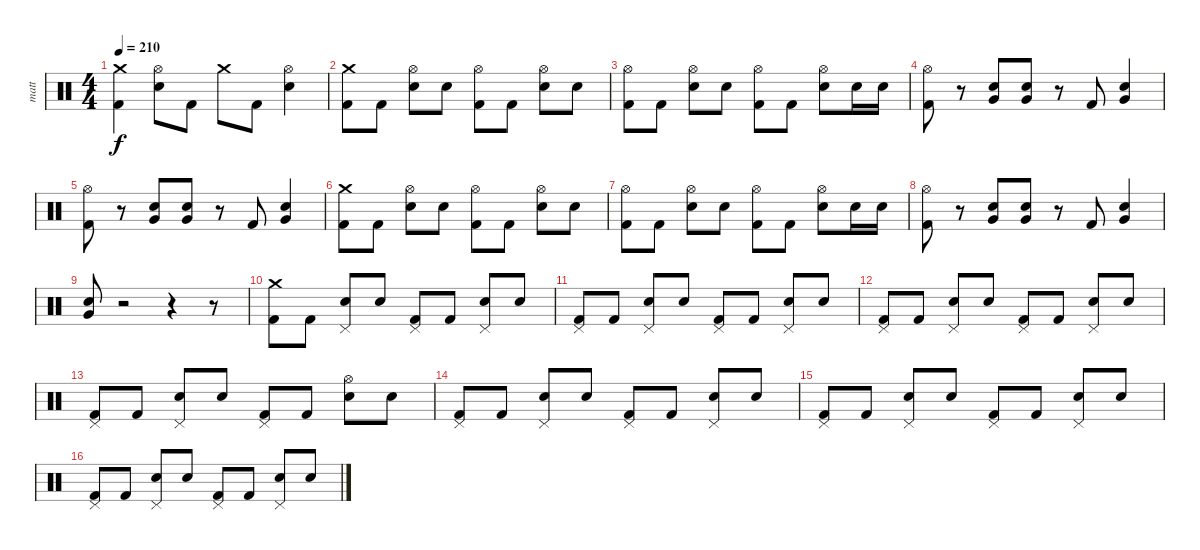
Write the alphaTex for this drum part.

\track ("matt" "matt") {instrument percussion}
\staff {score}
\articulation defaults
\ts (4 4)
\tempo 210
\clef neutral
\ks c
("Crash medium (hit)" "Kick (hit) 2").4{dy f} ("Hi-Hat (open)" "Electric Snare (hit)").8 "Kick (hit) 2".8 "Crash medium (hit)".8 "Kick (hit) 2".8 ("Hi-Hat (open)" "Electric Snare (hit)").4 |
("Crash medium (hit)" "Kick (hit) 2").8 "Kick (hit) 2".8 ("Hi-Hat (open)" "Electric Snare (hit)").8 "Electric Snare (hit)".8 ("Hi-Hat (open)" "Kick (hit) 2").8 "Kick (hit) 2".8 ("Hi-Hat (open)" "Electric Snare (hit)").8 "Electric Snare (hit)".8 |
("Hi-Hat (open)" "Kick (hit) 2").8 "Kick (hit) 2".8 ("Hi-Hat (open)" "Electric Snare (hit)").8 "Electric Snare (hit)".8 ("Hi-Hat (open)" "Kick (hit) 2").8 "Kick (hit) 2".8 ("Hi-Hat (open)" "Electric Snare (hit)").8 "Electric Snare (hit)".16 "Electric Snare (hit)".16 |
("Hi-Hat (open)" "Kick (hit) 2").8 r.8 ("Very Low Tom (hit)" "Electric Snare (hit)").8 ("Very Low Tom (hit)" "Electric Snare (hit)").8 r.8 "Kick (hit) 2".8 ("Very Low Tom (hit)" "Electric Snare (hit)").4 |
("Hi-Hat (open)" "Kick (hit) 2").8 r.8 ("Very Low Tom (hit)" "Electric Snare (hit)").8 ("Very Low Tom (hit)" "Electric Snare (hit)").8 r.8 "Kick (hit) 2".8 ("Very Low Tom (hit)" "Electric Snare (hit)").4 |
("Crash medium (hit)" "Kick (hit) 2").8 "Kick (hit) 2".8 ("Hi-Hat (open)" "Electric Snare (hit)").8 "Electric Snare (hit)".8 ("Hi-Hat (open)" "Kick (hit) 2").8 "Kick (hit) 2".8 ("Hi-Hat (open)" "Electric Snare (hit)").8 "Electric Snare (hit)".8 |
("Hi-Hat (open)" "Kick (hit) 2").8 "Kick (hit) 2".8 ("Hi-Hat (open)" "Electric Snare (hit)").8 "Electric Snare (hit)".8 ("Hi-Hat (open)" "Kick (hit) 2").8 "Kick (hit) 2".8 ("Hi-Hat (open)" "Electric Snare (hit)").8 "Electric Snare (hit)".16 "Electric Snare (hit)".16 |
("Hi-Hat (open)" "Kick (hit) 2").8 r.8 ("Very Low Tom (hit)" "Electric Snare (hit)").8 ("Very Low Tom (hit)" "Electric Snare (hit)").8 r.8 "Kick (hit) 2".8 ("Very Low Tom (hit)" "Electric Snare (hit)").4 |
("Very Low Tom (hit)" "Electric Snare (hit)").8 r.2 r.4 r.8 |
("Crash medium (hit)" "Kick (hit) 2").8 "Kick (hit) 2".8 ("Pedal Hi-Hat (hit)" "Electric Snare (hit)").8 "Electric Snare (hit)".8 ("Pedal Hi-Hat (hit)" "Kick (hit) 2").8 "Kick (hit) 2".8 ("Pedal Hi-Hat (hit)" "Electric Snare (hit)").8 "Electric Snare (hit)".8 |
("Pedal Hi-Hat (hit)" "Kick (hit) 2").8 "Kick (hit) 2".8 ("Pedal Hi-Hat (hit)" "Electric Snare (hit)").8 "Electric Snare (hit)".8 ("Pedal Hi-Hat (hit)" "Kick (hit) 2").8 "Kick (hit) 2".8 ("Pedal Hi-Hat (hit)" "Electric Snare (hit)").8 "Electric Snare (hit)".8 |
("Pedal Hi-Hat (hit)" "Kick (hit) 2").8 "Kick (hit) 2".8 ("Pedal Hi-Hat (hit)" "Electric Snare (hit)").8 "Electric Snare (hit)".8 ("Pedal Hi-Hat (hit)" "Kick (hit) 2").8 "Kick (hit) 2".8 ("Pedal Hi-Hat (hit)" "Electric Snare (hit)").8 "Electric Snare (hit)".8 |
("Pedal Hi-Hat (hit)" "Kick (hit) 2").8 "Kick (hit) 2".8 ("Pedal Hi-Hat (hit)" "Electric Snare (hit)").8 "Electric Snare (hit)".8 ("Pedal Hi-Hat (hit)" "Kick (hit) 2").8 "Kick (hit) 2".8 ("Hi-Hat (open)" "Electric Snare (hit)").8 "Electric Snare (hit)".8 |
("Pedal Hi-Hat (hit)" "Kick (hit) 2").8 "Kick (hit) 2".8 ("Pedal Hi-Hat (hit)" "Electric Snare (hit)").8 "Electric Snare (hit)".8 ("Pedal Hi-Hat (hit)" "Kick (hit) 2").8 "Kick (hit) 2".8 ("Pedal Hi-Hat (hit)" "Electric Snare (hit)").8 "Electric Snare (hit)".8 |
("Pedal Hi-Hat (hit)" "Kick (hit) 2").8 "Kick (hit) 2".8 ("Pedal Hi-Hat (hit)" "Electric Snare (hit)").8 "Electric Snare (hit)".8 ("Pedal Hi-Hat (hit)" "Kick (hit) 2").8 "Kick (hit) 2".8 ("Pedal Hi-Hat (hit)" "Electric Snare (hit)").8 "Electric Snare (hit)".8 |
("Pedal Hi-Hat (hit)" "Kick (hit) 2").8 "Kick (hit) 2".8 ("Pedal Hi-Hat (hit)" "Electric Snare (hit)").8 "Electric Snare (hit)".8 ("Pedal Hi-Hat (hit)" "Kick (hit) 2").8 "Kick (hit) 2".8 ("Pedal Hi-Hat (hit)" "Electric Snare (hit)").8 "Electric Snare (hit)".8
